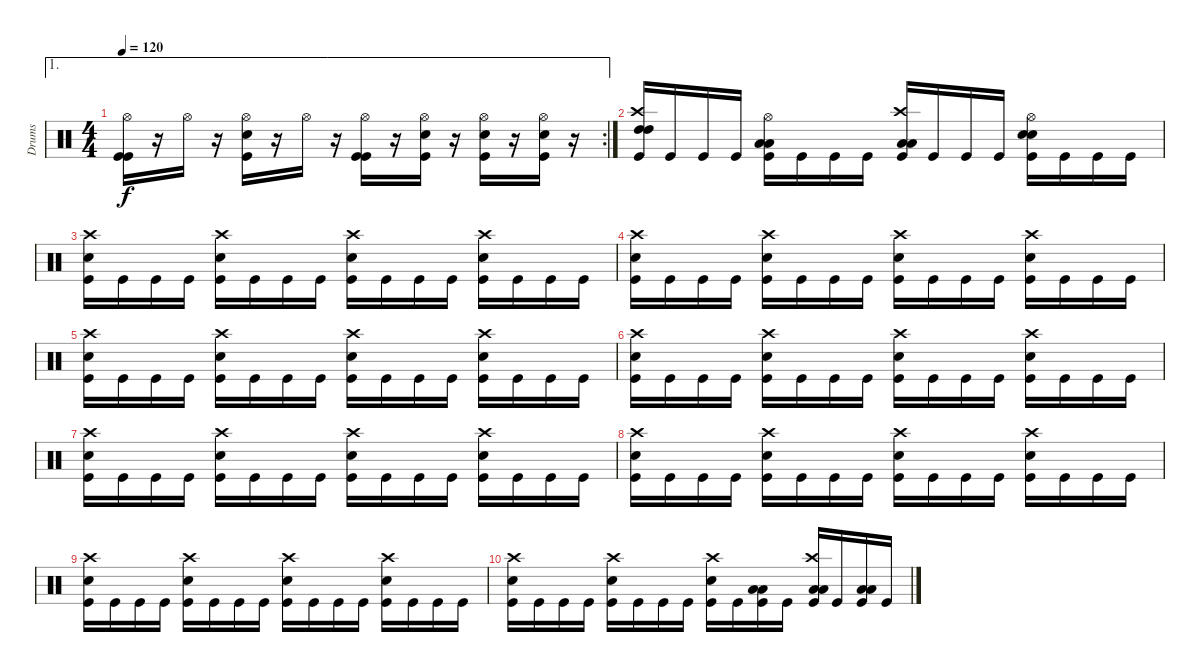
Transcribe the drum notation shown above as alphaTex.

\track ("Drums" "Drums") {instrument percussion}
\staff {score}
\articulation defaults
\ae 1
\rc 2
\ts (4 4)
\tempo 120
\clef neutral
\ks c
("Hi-Hat (open)" "Kick (hit)" "Kick (hit)").16{dy f} r.16 "Hi-Hat (open)".16 r.16 ("Hi-Hat (open)" "Snare (hit) 2" "Kick (hit)").16 r.16 "Hi-Hat (open)".16 r.16 ("Hi-Hat (open)" "Kick (hit)" "Kick (hit)").16 r.16 ("Hi-Hat (open)" "Snare (hit) 2" "Kick (hit)").16 r.16 ("Hi-Hat (open)" "Snare (hit) 2" "Kick (hit)").16 r.16 ("Hi-Hat (open)" "Snare (hit) 2" "Kick (hit)").16 r.16 |
("Crash high (hit)" "High Tom (hit)" "High Tom (hit)" "Kick (hit)").16 "Kick (hit)".16 "Kick (hit)".16 "Kick (hit)".16 ("Hi-Hat (open)" "Low Tom (hit)" "Low Tom (hit)" "Kick (hit)").16 "Kick (hit)".16 "Kick (hit)".16 "Kick (hit)".16 ("Crash high (hit)" "Low Tom (hit)" "Low Tom (hit)" "Kick (hit)").16 "Kick (hit)".16 "Kick (hit)".16 "Kick (hit)".16 ("Hi-Hat (open)" "Snare (hit) 2" "Snare (hit) 2" "Kick (hit)").16 "Kick (hit)".16 "Kick (hit)".16 "Kick (hit)".16 |
("Crash high (hit)" "Snare (hit) 2" "Kick (hit)").16 "Kick (hit)".16 "Kick (hit)".16 "Kick (hit)".16 ("Crash high (hit)" "Snare (hit) 2" "Kick (hit)").16 "Kick (hit)".16 "Kick (hit)".16 "Kick (hit)".16 ("Crash high (hit)" "Snare (hit) 2" "Kick (hit)").16 "Kick (hit)".16 "Kick (hit)".16 "Kick (hit)".16 ("Crash high (hit)" "Snare (hit) 2" "Kick (hit)").16 "Kick (hit)".16 "Kick (hit)".16 "Kick (hit)".16 |
("Crash high (hit)" "Snare (hit) 2" "Kick (hit)").16 "Kick (hit)".16 "Kick (hit)".16 "Kick (hit)".16 ("Crash high (hit)" "Snare (hit) 2" "Kick (hit)").16 "Kick (hit)".16 "Kick (hit)".16 "Kick (hit)".16 ("Crash high (hit)" "Snare (hit) 2" "Kick (hit)").16 "Kick (hit)".16 "Kick (hit)".16 "Kick (hit)".16 ("Crash high (hit)" "Snare (hit) 2" "Kick (hit)").16 "Kick (hit)".16 "Kick (hit)".16 "Kick (hit)".16 |
("Crash high (hit)" "Snare (hit) 2" "Kick (hit)").16 "Kick (hit)".16 "Kick (hit)".16 "Kick (hit)".16 ("Crash high (hit)" "Snare (hit) 2" "Kick (hit)").16 "Kick (hit)".16 "Kick (hit)".16 "Kick (hit)".16 ("Crash high (hit)" "Snare (hit) 2" "Kick (hit)").16 "Kick (hit)".16 "Kick (hit)".16 "Kick (hit)".16 ("Crash high (hit)" "Snare (hit) 2" "Kick (hit)").16 "Kick (hit)".16 "Kick (hit)".16 "Kick (hit)".16 |
("Crash high (hit)" "Snare (hit) 2" "Kick (hit)").16 "Kick (hit)".16 "Kick (hit)".16 "Kick (hit)".16 ("Crash high (hit)" "Snare (hit) 2" "Kick (hit)").16 "Kick (hit)".16 "Kick (hit)".16 "Kick (hit)".16 ("Crash high (hit)" "Snare (hit) 2" "Kick (hit)").16 "Kick (hit)".16 "Kick (hit)".16 "Kick (hit)".16 ("Crash high (hit)" "Snare (hit) 2" "Kick (hit)").16 "Kick (hit)".16 "Kick (hit)".16 "Kick (hit)".16 |
("Crash high (hit)" "Snare (hit) 2" "Kick (hit)").16 "Kick (hit)".16 "Kick (hit)".16 "Kick (hit)".16 ("Crash high (hit)" "Snare (hit) 2" "Kick (hit)").16 "Kick (hit)".16 "Kick (hit)".16 "Kick (hit)".16 ("Crash high (hit)" "Snare (hit) 2" "Kick (hit)").16 "Kick (hit)".16 "Kick (hit)".16 "Kick (hit)".16 ("Crash high (hit)" "Snare (hit) 2" "Kick (hit)").16 "Kick (hit)".16 "Kick (hit)".16 "Kick (hit)".16 |
("Crash high (hit)" "Snare (hit) 2" "Kick (hit)").16 "Kick (hit)".16 "Kick (hit)".16 "Kick (hit)".16 ("Crash high (hit)" "Snare (hit) 2" "Kick (hit)").16 "Kick (hit)".16 "Kick (hit)".16 "Kick (hit)".16 ("Crash high (hit)" "Snare (hit) 2" "Kick (hit)").16 "Kick (hit)".16 "Kick (hit)".16 "Kick (hit)".16 ("Crash high (hit)" "Snare (hit) 2" "Kick (hit)").16 "Kick (hit)".16 "Kick (hit)".16 "Kick (hit)".16 |
("Crash high (hit)" "Snare (hit) 2" "Kick (hit)").16 "Kick (hit)".16 "Kick (hit)".16 "Kick (hit)".16 ("Crash high (hit)" "Snare (hit) 2" "Kick (hit)").16 "Kick (hit)".16 "Kick (hit)".16 "Kick (hit)".16 ("Crash high (hit)" "Snare (hit) 2" "Kick (hit)").16 "Kick (hit)".16 "Kick (hit)".16 "Kick (hit)".16 ("Crash high (hit)" "Snare (hit) 2" "Kick (hit)").16 "Kick (hit)".16 "Kick (hit)".16 "Kick (hit)".16 |
("Crash high (hit)" "Snare (hit) 2" "Kick (hit)").16 "Kick (hit)".16 "Kick (hit)".16 "Kick (hit)".16 ("Crash high (hit)" "Snare (hit) 2" "Kick (hit)").16 "Kick (hit)".16 "Kick (hit)".16 "Kick (hit)".16 ("Crash high (hit)" "Snare (hit) 2" "Kick (hit)").16 "Kick (hit)".16 ("Low Floor Tom (hit)" "Low Floor Tom (hit)" "Kick (hit)").16 "Kick (hit)".16 ("Crash high (hit)" "Low Floor Tom (hit)" "Low Floor Tom (hit)" "Kick (hit)").16 "Kick (hit)".16 ("Low Floor Tom (hit)" "Low Floor Tom (hit)" "Kick (hit)").16 "Kick (hit)".16
